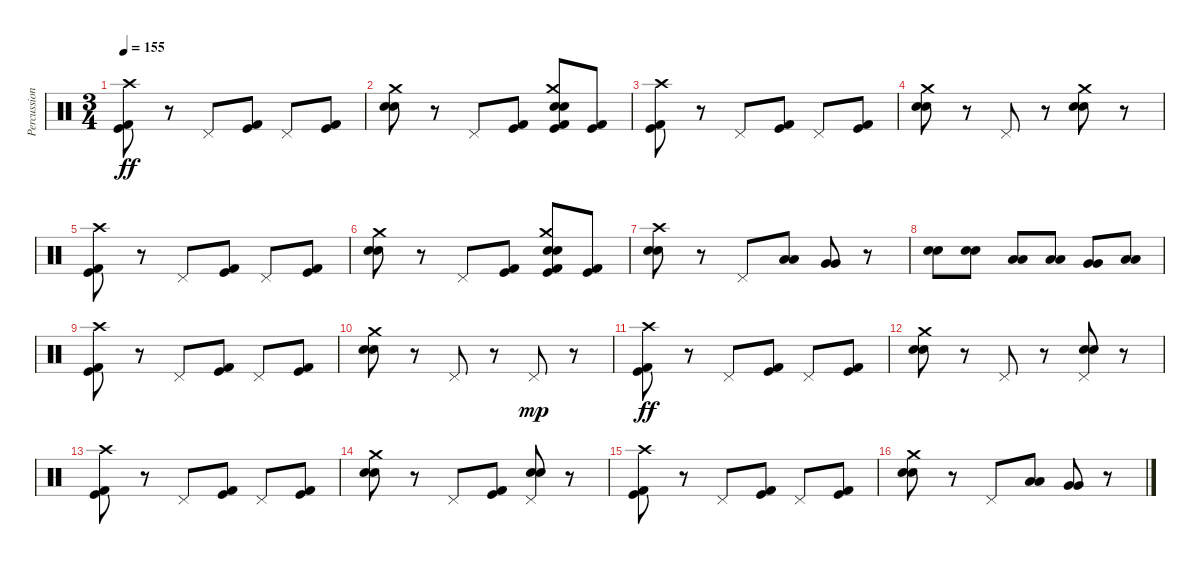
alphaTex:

\track ("Percussion" "Percussion") {instrument percussion}
\staff {score}
\articulation defaults
\ts (3 4)
\tempo 155
\clef neutral
\ks c
("Crash high (hit)" "Kick (hit)" "Kick (hit) 2").8{dy ff} r.8 "Pedal Hi-Hat (hit)".8 ("Kick (hit)" "Kick (hit) 2").8 "Pedal Hi-Hat (hit)".8 ("Kick (hit)" "Kick (hit) 2").8 |
("Crash medium (hit)" "Electric Snare (hit)" "Electric Snare (hit)").8 r.8 "Pedal Hi-Hat (hit)".8 ("Kick (hit)" "Kick (hit) 2").8 ("Crash medium (hit)" "Electric Snare (hit)" "Electric Snare (hit)" "Kick (hit)" "Kick (hit) 2").8 ("Kick (hit)" "Kick (hit) 2").8 |
("Crash high (hit)" "Kick (hit)" "Kick (hit) 2").8 r.8 "Pedal Hi-Hat (hit)".8 ("Kick (hit)" "Kick (hit) 2").8 "Pedal Hi-Hat (hit)".8 ("Kick (hit)" "Kick (hit) 2").8 |
("Crash medium (hit)" "Electric Snare (hit)" "Electric Snare (hit)").8 r.8 "Pedal Hi-Hat (hit)".8 r.8 ("Crash medium (hit)" "Electric Snare (hit)" "Electric Snare (hit)").8 r.8 |
("Crash high (hit)" "Kick (hit)" "Kick (hit) 2").8 r.8 "Pedal Hi-Hat (hit)".8 ("Kick (hit)" "Kick (hit) 2").8 "Pedal Hi-Hat (hit)".8 ("Kick (hit)" "Kick (hit) 2").8 |
("Crash medium (hit)" "Electric Snare (hit)" "Electric Snare (hit)").8 r.8 "Pedal Hi-Hat (hit)".8 ("Kick (hit)" "Kick (hit) 2").8 ("Crash medium (hit)" "Electric Snare (hit)" "Electric Snare (hit)" "Kick (hit)" "Kick (hit) 2").8 ("Kick (hit)" "Kick (hit) 2").8 |
("Crash high (hit)" "Electric Snare (hit)" "Electric Snare (hit)").8 r.8 "Pedal Hi-Hat (hit)".8 ("Low Tom (hit)" "Low Tom (hit)").8 ("Very Low Tom (hit)" "Very Low Tom (hit)").8 r.8 |
("Electric Snare (hit)" "Electric Snare (hit)").8 ("Electric Snare (hit)" "Electric Snare (hit)").8 ("Low Tom (hit)" "Low Tom (hit)").8 ("Low Tom (hit)" "Low Tom (hit)").8 ("Very Low Tom (hit)" "Very Low Tom (hit)").8 ("Low Floor Tom (hit)" "Low Floor Tom (hit)").8 |
("Crash high (hit)" "Kick (hit)" "Kick (hit) 2").8 r.8 "Pedal Hi-Hat (hit)".8 ("Kick (hit)" "Kick (hit) 2").8 "Pedal Hi-Hat (hit)".8 ("Kick (hit)" "Kick (hit) 2").8 |
("Crash medium (hit)" "Electric Snare (hit)" "Electric Snare (hit)").8 r.8 "Pedal Hi-Hat (hit)".8 r.8 "Pedal Hi-Hat (hit)".8{dy mp} r.8 |
("Crash high (hit)" "Kick (hit)" "Kick (hit) 2").8{dy ff} r.8 "Pedal Hi-Hat (hit)".8 ("Kick (hit)" "Kick (hit) 2").8 "Pedal Hi-Hat (hit)".8 ("Kick (hit)" "Kick (hit) 2").8 |
("Crash medium (hit)" "Electric Snare (hit)" "Electric Snare (hit)").8 r.8 "Pedal Hi-Hat (hit)".8 r.8 ("Pedal Hi-Hat (hit)" "Electric Snare (hit)" "Electric Snare (hit)").8 r.8 |
("Crash high (hit)" "Kick (hit)" "Kick (hit) 2").8 r.8 "Pedal Hi-Hat (hit)".8 ("Kick (hit)" "Kick (hit) 2").8 "Pedal Hi-Hat (hit)".8 ("Kick (hit)" "Kick (hit) 2").8 |
("Crash medium (hit)" "Electric Snare (hit)" "Electric Snare (hit)").8 r.8 "Pedal Hi-Hat (hit)".8 ("Kick (hit)" "Kick (hit) 2").8 ("Pedal Hi-Hat (hit)" "Electric Snare (hit)" "Electric Snare (hit)").8 r.8 |
("Crash high (hit)" "Kick (hit)" "Kick (hit) 2").8 r.8 "Pedal Hi-Hat (hit)".8 ("Kick (hit)" "Kick (hit) 2").8 "Pedal Hi-Hat (hit)".8 ("Kick (hit)" "Kick (hit) 2").8 |
("Crash medium (hit)" "Electric Snare (hit)" "Electric Snare (hit)").8 r.8 "Pedal Hi-Hat (hit)".8 ("Low Tom (hit)" "Low Tom (hit)").8 ("Very Low Tom (hit)" "Very Low Tom (hit)").8 r.8
